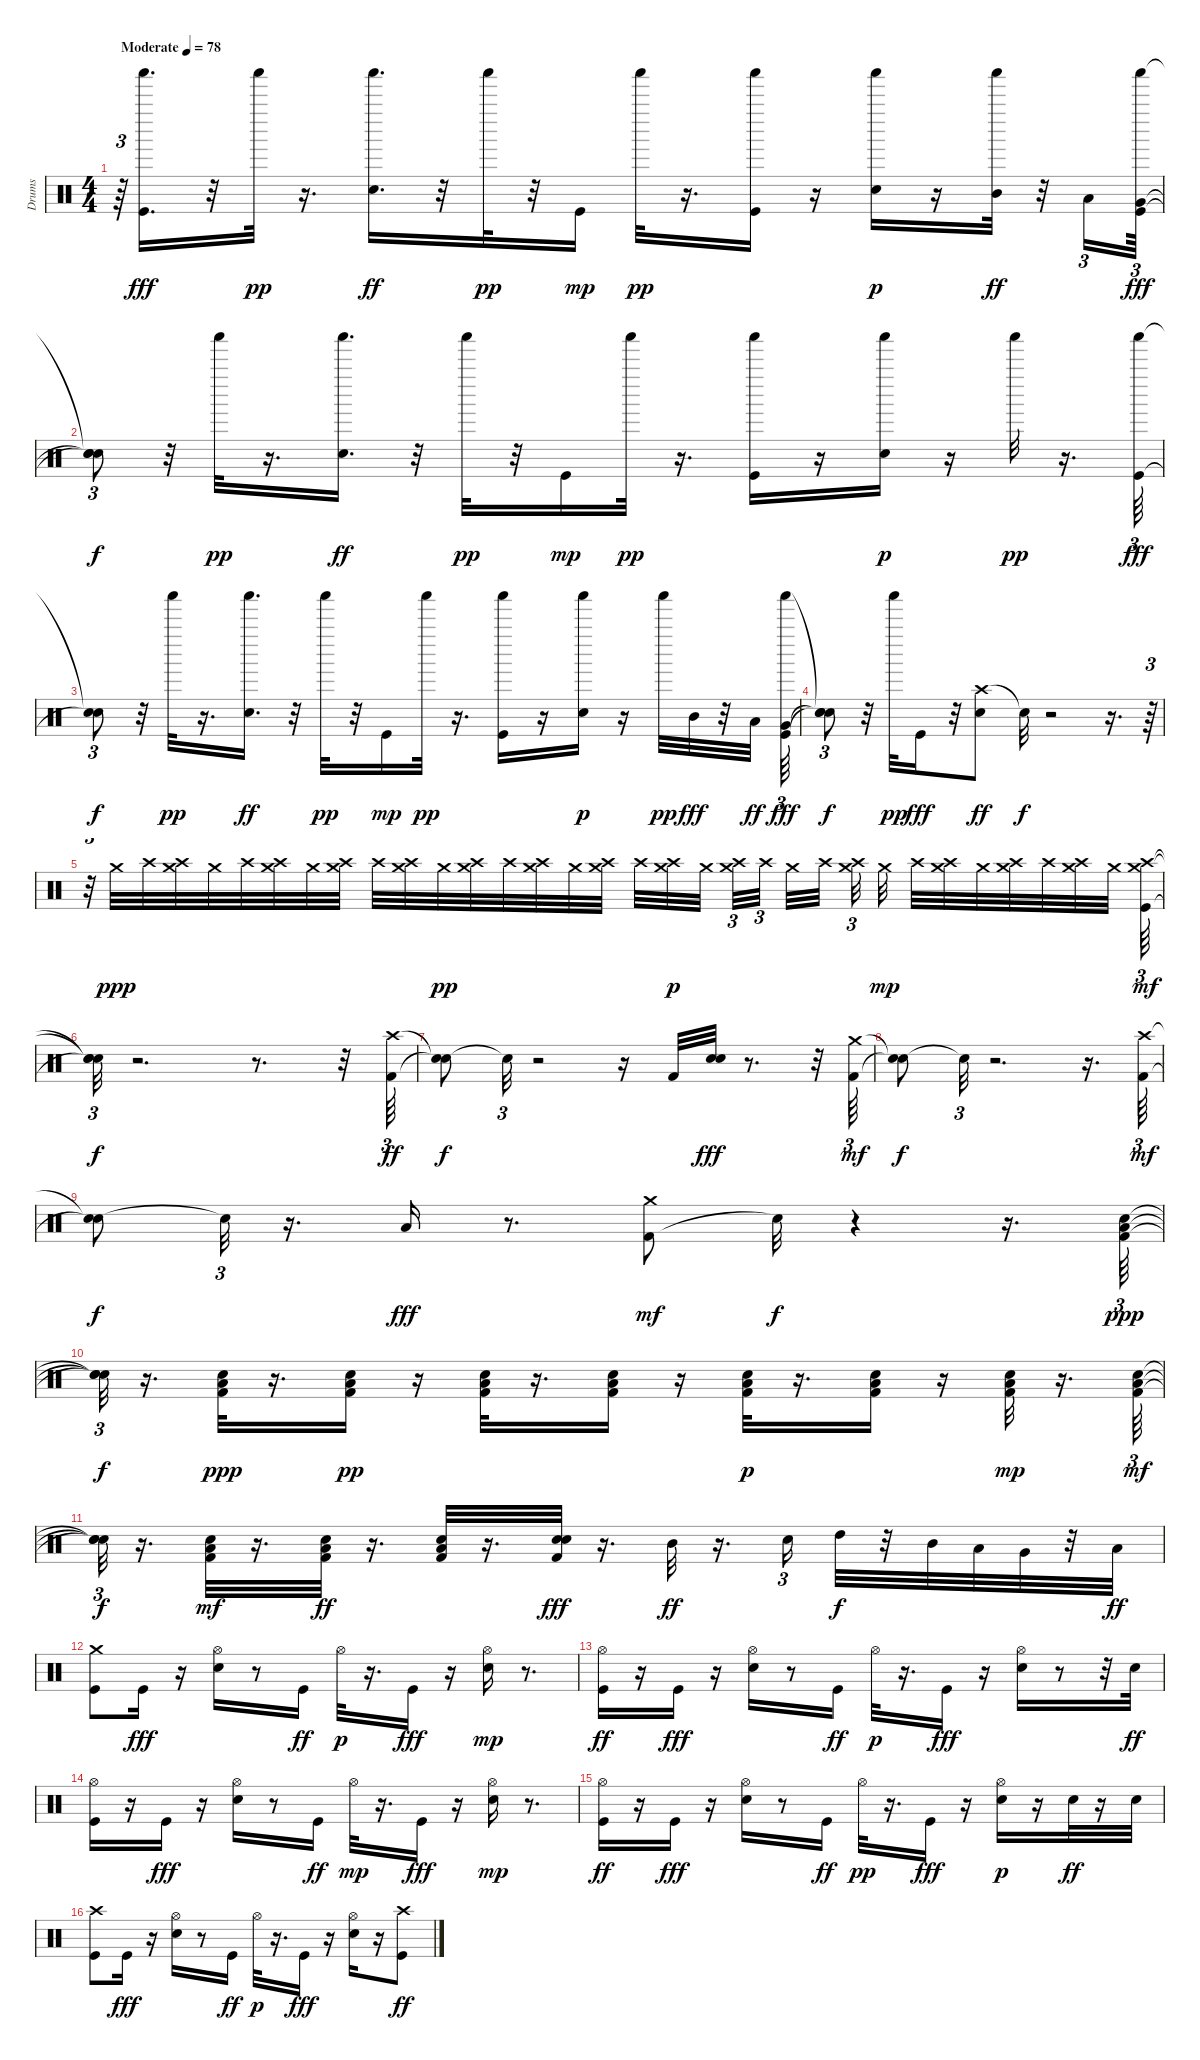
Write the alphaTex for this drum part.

\track ("Drums" "Drums") {instrument percussion}
\staff {score}
\articulation defaults
\ts (4 4)
\tempo (78 "Moderate")
\clef neutral
\ks c
r.64{tu (3 2) dy fff} ("Shaker (hit)" "Kick (hit)").16{d} r.32 "Shaker (hit)".32{dy pp} r.16{d} ("Shaker (hit)" "Electric Snare (hit)").16{d dy ff} r.32 "Shaker (hit)".32{dy pp} r.32 "Kick (hit)".16{dy mp} "Shaker (hit)".32{dy pp} r.16{d} ("Kick (hit)" "Shaker (hit)").16 r.16 ("Electric Snare (hit)" "Shaker (hit)").16{dy p} r.16 ("Shaker (hit)" "Mid Tom (hit)").32{dy ff} r.32 "Low Tom (hit)".16{tu (3 2)} ("Very Low Tom (hit)" "Shaker (hit)" "Kick (hit)").64{tu (3 2) dy fff} |
("Snare (hit)"{t} "Snare (hit)"{t} "Snare (hit)"{t}).8{tu (3 2) dy f} r.32 "Shaker (hit)".32{dy pp} r.16{d} ("Shaker (hit)" "Electric Snare (hit)").16{d dy ff} r.32 "Shaker (hit)".32{dy pp} r.32 "Kick (hit)".16{dy mp} "Shaker (hit)".32{dy pp} r.16{d} ("Kick (hit)" "Shaker (hit)").16 r.16 ("Electric Snare (hit)" "Shaker (hit)").16{dy p} r.16 "Shaker (hit)".32{dy pp} r.16{d} ("Shaker (hit)" "Kick (hit)").64{tu (3 2) dy fff} |
("Snare (hit)"{t} "Snare (hit)"{t}).8{tu (3 2) dy f} r.32 "Shaker (hit)".32{dy pp} r.16{d} ("Shaker (hit)" "Electric Snare (hit)").16{d dy ff} r.32 "Shaker (hit)".32{dy pp} r.32 "Kick (hit)".16{dy mp} "Shaker (hit)".32{dy pp} r.16{d} ("Kick (hit)" "Shaker (hit)").16 r.16 ("Electric Snare (hit)" "Shaker (hit)").16{dy p} r.16 "Shaker (hit)".32{dy pp} "Mid Tom (hit)".32{dy fff} r.32 "Low Tom (hit)".32{dy ff} ("Shaker (hit)" "Kick (hit)" "Very Low Tom (hit)").64{tu (3 2) dy fff} |
("Snare (hit)"{t} "Snare (hit)"{t} "Snare (hit)"{t}).8{tu (3 2) dy f} r.32 "Shaker (hit)".32{dy pp} "Kick (hit)".16{dy fff} r.32 ("Crash high (hit)" "Electric Snare (hit)").8{dy ff} "Snare (hit)"{t}.32{dy f} r.2 r.16{d} r.64{tu (3 2)} |
r.32{tu (3 2)} "Crash medium (hit)".32{dy ppp} "Crash high (hit)".32 ("Crash medium (hit)" "Crash high (hit)").32 "Crash medium (hit)".32 "Crash high (hit)".32 ("Crash medium (hit)" "Crash high (hit)").32 "Crash medium (hit)".32 ("Crash high (hit)" "Crash medium (hit)").32 "Crash high (hit)".32 ("Crash medium (hit)" "Crash high (hit)").32 "Crash medium (hit)".32{dy pp} ("Crash high (hit)" "Crash medium (hit)").32 "Crash high (hit)".32 ("Crash medium (hit)" "Crash high (hit)").32 "Crash medium (hit)".32 ("Crash high (hit)" "Crash medium (hit)").32 "Crash high (hit)".32 ("Crash medium (hit)" "Crash high (hit)").32{dy p} "Crash medium (hit)".32 ("Crash high (hit)" "Crash medium (hit)").32{tu (3 2)} "Crash high (hit)".32{tu (3 2)} "Crash medium (hit)".32 "Crash high (hit)".32 ("Crash medium (hit)" "Crash high (hit)").32{tu (3 2)} "Crash medium (hit)".32{dy mp} "Crash high (hit)".32 ("Crash medium (hit)" "Crash high (hit)").32 "Crash medium (hit)".32 ("Crash high (hit)" "Crash medium (hit)").32 "Crash high (hit)".32 ("Crash medium (hit)" "Crash high (hit)").32 "Crash medium (hit)".32 ("Crash high (hit)" "Kick (hit)" "Crash medium (hit)").64{tu (3 2) dy mf} |
("Snare (hit)"{t} "Snare (hit)"{t} "Snare (hit)"{t}).32{tu (3 2) dy f} r.2{d} r.8{d} r.32 ("Crash high (hit)" "Kick (hit) 2").64{tu (3 2) dy ff} |
("Snare (hit)"{t} "Snare (hit)"{t}).8{dy f} "Snare (hit)"{t}.32{tu (3 2)} r.2 r.16 "Kick (hit) 2".32 ("Electric Snare (hit)" "Electric Snare (hit)").32{dy fff} r.8{d} r.32 ("Kick (hit) 2" "Crash medium (hit)").64{tu (3 2) dy mf} |
("Snare (hit)"{t} "Snare (hit)"{t}).8{dy f} "Snare (hit)"{t}.32{tu (3 2)} r.2{d} r.16{d} ("Kick (hit) 2" "Crash high (hit)").64{tu (3 2) dy mf} |
("Snare (hit)"{t} "Snare (hit)"{t}).8{dy f} "Snare (hit)"{t}.32{tu (3 2)} r.16{d} "Low Floor Tom (hit)".16{dy fff} r.8{d} ("Kick (hit) 2" "Crash medium (hit)").8{dy mf} "Snare (hit)"{t}.32{dy f} r.4 r.16{d} ("Kick (hit) 2" "Snare (hit) 2" "Low Floor Tom (hit)").64{tu (3 2) dy ppp} |
("Snare (hit)"{t} "Snare (hit)"{t} "Snare (hit)"{t}).32{tu (3 2) dy f} r.16{d} ("Kick (hit) 2" "Low Floor Tom (hit)" "Snare (hit) 2").32{dy ppp} r.16{d} ("Low Floor Tom (hit)" "Kick (hit) 2" "Snare (hit) 2").16{dy pp} r.16 ("Kick (hit) 2" "Low Floor Tom (hit)" "Snare (hit) 2").32 r.16{d} ("Low Floor Tom (hit)" "Kick (hit) 2" "Snare (hit) 2").16 r.16 ("Kick (hit) 2" "Low Floor Tom (hit)" "Snare (hit) 2").32{dy p} r.16{d} ("Kick (hit) 2" "Low Floor Tom (hit)" "Snare (hit) 2").16 r.16 ("Kick (hit) 2" "Snare (hit) 2" "Low Floor Tom (hit)").32{dy mp} r.16{d} ("Kick (hit) 2" "Low Floor Tom (hit)" "Snare (hit) 2").64{tu (3 2) dy mf} |
("Snare (hit)"{t} "Snare (hit)"{t} "Snare (hit)"{t}).32{tu (3 2) dy f} r.16{d} ("Low Floor Tom (hit)" "Snare (hit) 2" "Kick (hit) 2").32{dy mf} r.16{d} ("Kick (hit) 2" "Low Floor Tom (hit)" "Snare (hit) 2").32{dy ff} r.16{d} ("Kick (hit) 2" "Low Floor Tom (hit)" "Snare (hit) 2").32 r.16{d} ("Electric Snare (hit)" "Kick (hit) 2" "Electric Snare (hit)").32{dy fff} r.16{d} "Mid Tom (hit)".32{dy ff} r.16{d} "Electric Snare (hit)".16{tu (3 2)} "High Tom (hit)".32{dy f} r.32 "Mid Tom (hit)".32 "Low Tom (hit)".32 "Very Low Tom (hit)".32 r.32 "Low Floor Tom (hit)".32{dy ff} |
("Crash medium (hit)" "Kick (hit)").8 "Kick (hit)".16{dy fff} r.16 ("Hi-Hat (open)" "Electric Snare (hit)").16 r.8 "Kick (hit)".16{dy ff} "Hi-Hat (open)".32{dy p} r.16{d} "Kick (hit)".16{dy fff} r.16 ("Electric Snare (hit)" "Hi-Hat (open)").16{dy mp} r.8{d} |
("Hi-Hat (open)" "Kick (hit)").16{dy ff} r.16 "Kick (hit)".16{dy fff} r.16 ("Hi-Hat (open)" "Electric Snare (hit)").16 r.8 "Kick (hit)".16{dy ff} "Hi-Hat (open)".32{dy p} r.16{d} "Kick (hit)".16{dy fff} r.16 ("Hi-Hat (open)" "Electric Snare (hit)").16 r.8 r.32 "Electric Snare (hit)".32{dy ff} |
("Hi-Hat (open)" "Kick (hit)").16 r.16 "Kick (hit)".16{dy fff} r.16 ("Hi-Hat (open)" "Electric Snare (hit)").16 r.8 "Kick (hit)".16{dy ff} "Hi-Hat (open)".32{dy mp} r.16{d} "Kick (hit)".16{dy fff} r.16 ("Electric Snare (hit)" "Hi-Hat (open)").16{dy mp} r.8{d} |
("Hi-Hat (open)" "Kick (hit)").16{dy ff} r.16 "Kick (hit)".16{dy fff} r.16 ("Hi-Hat (open)" "Electric Snare (hit)").16 r.8 "Kick (hit)".16{dy ff} "Hi-Hat (open)".32{dy pp} r.16{d} "Kick (hit)".16{dy fff} r.16 ("Electric Snare (hit)" "Hi-Hat (open)").16{dy p} r.16 "Electric Snare (hit)".32{dy ff} r.16 "Electric Snare (hit)".32 |
("Crash high (hit)" "Kick (hit)").8 "Kick (hit)".16{dy fff} r.16 ("Hi-Hat (open)" "Electric Snare (hit)").16 r.8 "Kick (hit)".16{dy ff} "Hi-Hat (open)".32{dy p} r.16{d} "Kick (hit)".16{dy fff} r.16 ("Hi-Hat (open)" "Electric Snare (hit)").16 r.16 ("Crash high (hit)" "Kick (hit)").8{dy ff}
